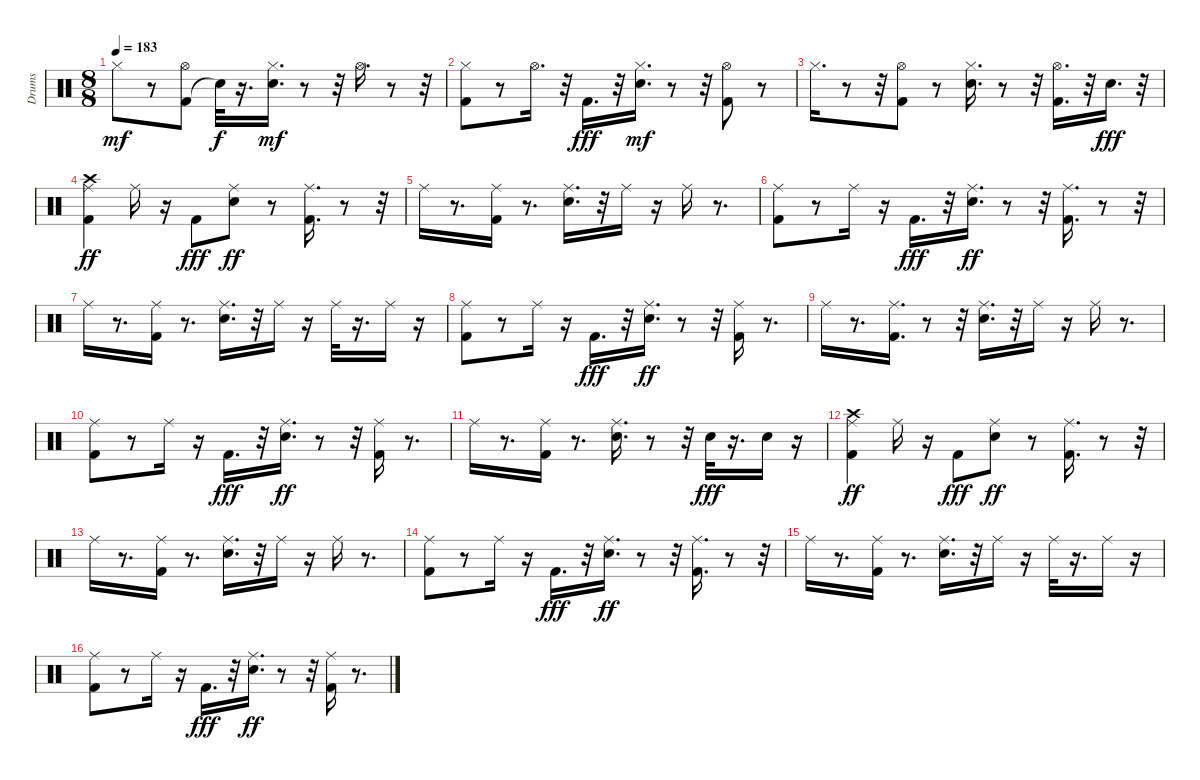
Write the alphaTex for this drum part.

\track ("Drums" "Drums") {instrument percussion}
\staff {score}
\articulation defaults
\ts (8 8)
\tempo 183
\clef neutral
\ks c "Hi-Hat (closed)".8{dy mf}
r.8 ("Kick (hit) 2" "Hi-Hat (open)").8 "Snare (hit)"{t}.32{dy f} r.16{d} ("Snare (hit) 2" "Hi-Hat (closed)").16{d dy mf} r.8 r.32 "Hi-Hat (open)".16{d} r.8 r.32 |
("Kick (hit) 2" "Hi-Hat (closed)").8 r.8 "Hi-Hat (open)".16{d} r.32 "Kick (hit) 2".16{d dy fff} r.32 ("Snare (hit) 2" "Hi-Hat (closed)").16{d dy mf} r.8 r.32 ("Kick (hit) 2" "Hi-Hat (open)").8 r.8 |
"Hi-Hat (closed)".16{d} r.8 r.32 ("Kick (hit) 2" "Hi-Hat (open)").8 r.8 ("Snare (hit) 2" "Hi-Hat (closed)").16{d} r.8 r.32 ("Kick (hit) 2" "Hi-Hat (open)").16{d} r.32 "Snare (hit) 2".16{d dy fff} r.32 |
("Kick (hit) 2" "Ride (middle)" "Crash high (hit)").4{dy ff} "Ride (middle)".16 r.16 "Kick (hit) 2".8{dy fff} ("Snare (hit) 2" "Ride (middle)").8{dy ff} r.8 ("Kick (hit) 2" "Ride (middle)").16{d} r.8 r.32 |
"Ride (middle)".16 r.8{d} ("Kick (hit) 2" "Ride (middle)").16 r.8{d} ("Snare (hit) 2" "Ride (middle)").16{d} r.32 "Ride (middle)".16 r.16 "Ride (middle)".16 r.8{d} |
("Kick (hit) 2" "Ride (middle)").8 r.8 "Ride (middle)".16 r.16 "Kick (hit) 2".16{d dy fff} r.32 ("Snare (hit) 2" "Ride (middle)").16{d dy ff} r.8 r.32 ("Kick (hit) 2" "Ride (middle)").16{d} r.8 r.32 |
"Ride (middle)".16 r.8{d} ("Kick (hit) 2" "Ride (middle)").16 r.8{d} ("Snare (hit) 2" "Ride (middle)").16{d} r.32 "Ride (middle)".16 r.16 "Ride (middle)".32 r.16{d} "Ride (middle)".16 r.16 |
("Kick (hit) 2" "Ride (middle)").8 r.8 "Ride (middle)".16 r.16 "Kick (hit) 2".16{d dy fff} r.32 ("Snare (hit) 2" "Ride (middle)").16{d dy ff} r.8 r.32 ("Kick (hit) 2" "Ride (middle)").16 r.8{d} |
"Ride (middle)".16 r.8{d} ("Kick (hit) 2" "Ride (middle)").16{d} r.8 r.32 ("Snare (hit) 2" "Ride (middle)").16{d} r.32 "Ride (middle)".16 r.16 "Ride (middle)".16 r.8{d} |
("Kick (hit) 2" "Ride (middle)").8 r.8 "Ride (middle)".16 r.16 "Kick (hit) 2".16{d dy fff} r.32 ("Snare (hit) 2" "Ride (middle)").16{d dy ff} r.8 r.32 ("Kick (hit) 2" "Ride (middle)").16 r.8{d} |
"Ride (middle)".16 r.8{d} ("Kick (hit) 2" "Ride (middle)").16 r.8{d} ("Snare (hit) 2" "Ride (middle)").16{d} r.8 r.32 "Snare (hit) 2".32{dy fff} r.16{d} "Snare (hit) 2".16 r.16 |
("Kick (hit) 2" "Ride (middle)" "Crash high (hit)").4{dy ff} "Ride (middle)".16 r.16 "Kick (hit) 2".8{dy fff} ("Snare (hit) 2" "Ride (middle)").8{dy ff} r.8 ("Kick (hit) 2" "Ride (middle)").16{d} r.8 r.32 |
"Ride (middle)".16 r.8{d} ("Kick (hit) 2" "Ride (middle)").16 r.8{d} ("Snare (hit) 2" "Ride (middle)").16{d} r.32 "Ride (middle)".16 r.16 "Ride (middle)".16 r.8{d} |
("Kick (hit) 2" "Ride (middle)").8 r.8 "Ride (middle)".16 r.16 "Kick (hit) 2".16{d dy fff} r.32 ("Snare (hit) 2" "Ride (middle)").16{d dy ff} r.8 r.32 ("Kick (hit) 2" "Ride (middle)").16{d} r.8 r.32 |
"Ride (middle)".16 r.8{d} ("Kick (hit) 2" "Ride (middle)").16 r.8{d} ("Snare (hit) 2" "Ride (middle)").16{d} r.32 "Ride (middle)".16 r.16 "Ride (middle)".32 r.16{d} "Ride (middle)".16 r.16 |
("Kick (hit) 2" "Ride (middle)").8 r.8 "Ride (middle)".16 r.16 "Kick (hit) 2".16{d dy fff} r.32 ("Snare (hit) 2" "Ride (middle)").16{d dy ff} r.8 r.32 ("Kick (hit) 2" "Ride (middle)").16 r.8{d}
